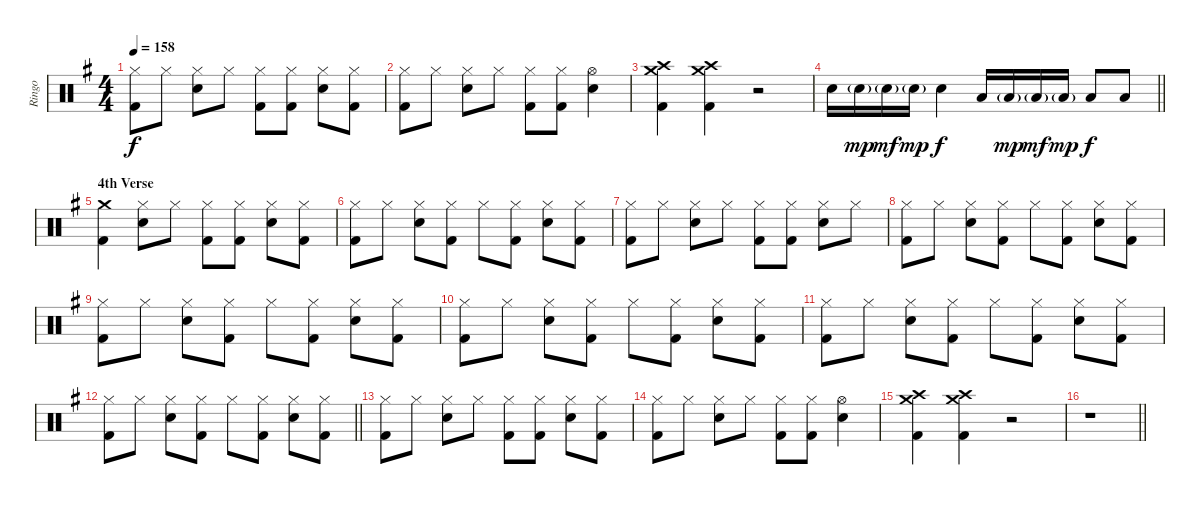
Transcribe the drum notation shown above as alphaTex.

\track ("Ringo" "Ringo") {instrument percussion}
\staff {score}
\articulation defaults
\ts (4 4)
\tempo 158
\clef neutral
\ks g
("Hi-Hat (closed)" "Kick (hit) 2").8{dy f} "Hi-Hat (closed)".8 ("Hi-Hat (closed)" "Electric Snare (hit)").8 "Hi-Hat (closed)".8 ("Hi-Hat (closed)" "Kick (hit) 2").8 ("Hi-Hat (closed)" "Kick (hit) 2").8 ("Hi-Hat (closed)" "Electric Snare (hit)").8 ("Hi-Hat (closed)" "Kick (hit) 2").8 |
("Hi-Hat (closed)" "Kick (hit) 2").8 "Hi-Hat (closed)".8 ("Hi-Hat (closed)" "Electric Snare (hit)").8 "Hi-Hat (closed)".8 ("Hi-Hat (closed)" "Kick (hit) 2").8 ("Hi-Hat (closed)" "Kick (hit) 2").8 ("Hi-Hat (open)" "Electric Snare (hit)").4 |
("Crash medium (hit)" "Crash high (hit)" "Kick (hit) 2").4 ("Crash medium (hit)" "Crash high (hit)" "Kick (hit) 2").4 r.2 |
\barLineRight lightlight "Electric Snare (hit)".16 "Electric Snare (hit)"{g}.16{dy mp} "Electric Snare (hit)"{g}.16{dy mf} "Electric Snare (hit)"{g}.16{dy mp} "Electric Snare (hit)".4{dy f} "Low Tom (hit)".16 "Low Tom (hit)"{g}.16{dy mp} "Low Tom (hit)"{g}.16{dy mf} "Low Tom (hit)"{g}.16{dy mp} "Low Tom (hit)".8{dy f} "Low Tom (hit)".8
|
\section ("" "4th Verse")
("Crash medium (hit)" "Kick (hit) 2").4 ("Hi-Hat (closed)" "Electric Snare (hit)").8 "Hi-Hat (closed)".8 ("Hi-Hat (closed)" "Kick (hit) 2").8 ("Hi-Hat (closed)" "Kick (hit) 2").8 ("Hi-Hat (closed)" "Electric Snare (hit)").8 ("Hi-Hat (closed)" "Kick (hit) 2").8 |
("Hi-Hat (closed)" "Kick (hit) 2").8 "Hi-Hat (closed)".8 ("Hi-Hat (closed)" "Electric Snare (hit)").8 ("Hi-Hat (closed)" "Kick (hit) 2").8 "Hi-Hat (closed)".8 ("Hi-Hat (closed)" "Kick (hit) 2").8 ("Hi-Hat (closed)" "Electric Snare (hit)").8 ("Hi-Hat (closed)" "Kick (hit) 2").8 |
("Hi-Hat (closed)" "Kick (hit) 2").8 "Hi-Hat (closed)".8 ("Hi-Hat (closed)" "Electric Snare (hit)").8 "Hi-Hat (closed)".8 ("Hi-Hat (closed)" "Kick (hit) 2").8 ("Hi-Hat (closed)" "Kick (hit) 2").8 ("Hi-Hat (closed)" "Electric Snare (hit)").8 "Hi-Hat (closed)".8 |
("Hi-Hat (closed)" "Kick (hit) 2").8 "Hi-Hat (closed)".8 ("Hi-Hat (closed)" "Electric Snare (hit)").8 ("Hi-Hat (closed)" "Kick (hit) 2").8 "Hi-Hat (closed)".8 ("Hi-Hat (closed)" "Kick (hit) 2").8 ("Hi-Hat (closed)" "Electric Snare (hit)").8 ("Hi-Hat (closed)" "Kick (hit) 2").8 |
("Hi-Hat (closed)" "Kick (hit) 2").8 "Hi-Hat (closed)".8 ("Hi-Hat (closed)" "Electric Snare (hit)").8 ("Hi-Hat (closed)" "Kick (hit) 2").8 "Hi-Hat (closed)".8 ("Hi-Hat (closed)" "Kick (hit) 2").8 ("Hi-Hat (closed)" "Electric Snare (hit)").8 ("Hi-Hat (closed)" "Kick (hit) 2").8 |
("Hi-Hat (closed)" "Kick (hit) 2").8 "Hi-Hat (closed)".8 ("Hi-Hat (closed)" "Electric Snare (hit)").8 ("Hi-Hat (closed)" "Kick (hit) 2").8 "Hi-Hat (closed)".8 ("Hi-Hat (closed)" "Kick (hit) 2").8 ("Hi-Hat (closed)" "Electric Snare (hit)").8 ("Hi-Hat (closed)" "Kick (hit) 2").8 |
("Hi-Hat (closed)" "Kick (hit) 2").8 "Hi-Hat (closed)".8 ("Hi-Hat (closed)" "Electric Snare (hit)").8 ("Hi-Hat (closed)" "Kick (hit) 2").8 "Hi-Hat (closed)".8 ("Hi-Hat (closed)" "Kick (hit) 2").8 ("Hi-Hat (closed)" "Electric Snare (hit)").8 ("Hi-Hat (closed)" "Kick (hit) 2").8 |
\barLineRight lightlight
("Hi-Hat (closed)" "Kick (hit) 2").8 "Hi-Hat (closed)".8 ("Hi-Hat (closed)" "Electric Snare (hit)").8 ("Hi-Hat (closed)" "Kick (hit) 2").8 "Hi-Hat (closed)".8 ("Hi-Hat (closed)" "Kick (hit) 2").8 ("Hi-Hat (closed)" "Electric Snare (hit)").8 ("Hi-Hat (closed)" "Kick (hit) 2").8 |
("Hi-Hat (closed)" "Kick (hit) 2").8 "Hi-Hat (closed)".8 ("Hi-Hat (closed)" "Electric Snare (hit)").8 "Hi-Hat (closed)".8 ("Hi-Hat (closed)" "Kick (hit) 2").8 ("Hi-Hat (closed)" "Kick (hit) 2").8 ("Hi-Hat (closed)" "Electric Snare (hit)").8 ("Hi-Hat (closed)" "Kick (hit) 2").8 |
("Hi-Hat (closed)" "Kick (hit) 2").8 "Hi-Hat (closed)".8 ("Hi-Hat (closed)" "Electric Snare (hit)").8 "Hi-Hat (closed)".8 ("Hi-Hat (closed)" "Kick (hit) 2").8 ("Hi-Hat (closed)" "Kick (hit) 2").8 ("Hi-Hat (open)" "Electric Snare (hit)").4 |
("Crash medium (hit)" "Crash high (hit)" "Kick (hit) 2").4 ("Crash medium (hit)" "Crash high (hit)" "Kick (hit) 2").4 r.2 |
\barLineRight lightlight
r.1
